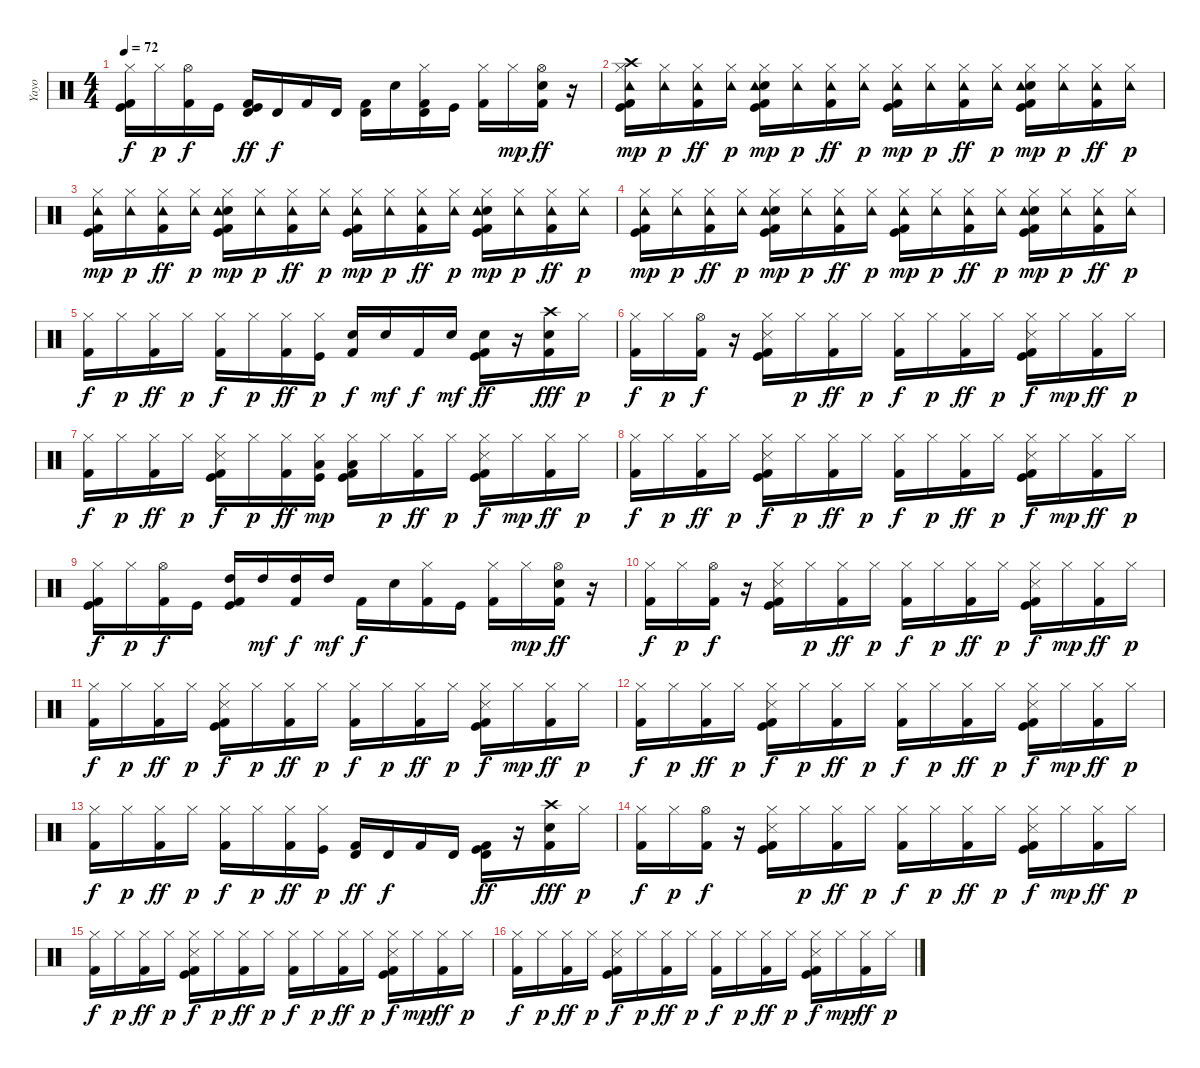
\track ("Yayo" "Yayo") {instrument percussion}
\staff {score}
\articulation defaults
\ts (4 4)
\tempo 72
\clef neutral
\ks c
("Kick (hit)" "Hi-Hat (closed)" "Kick (hit) 2").16{dy f} "Hi-Hat (closed)".16{dy p} ("Hi-Hat (open)" "Kick (hit) 2").16{dy f} "Kick (hit)".16 ("Kick (hit)" "Timbale high (hit)" "Kick (hit) 2").16{dy ff} "Timbale high (hit)".16{dy f} "Kick (hit) 2".16 "Timbale high (hit)".16 ("Timbale high (hit)" "Kick (hit) 2").16 "Snare (hit) 2".16 ("Hi-Hat (closed)" "Timbale high (hit)" "Kick (hit) 2").16 "Kick (hit)".16 ("Hi-Hat (closed)" "Kick (hit) 2").16 "Hi-Hat (closed)".16{dy mp} ("Snare (hit) 2" "Hi-Hat (open)" "Kick (hit) 2").16{dy ff} r.16 |
("Kick (hit)" "Hi-Hat (closed)" "Crash high (hit)" "Tambourine (hit)" "Kick (hit) 2").16{dy mp} ("Hi-Hat (closed)" "Tambourine (hit)").16{dy p} ("Hi-Hat (closed)" "Tambourine (hit)" "Kick (hit) 2").16{dy ff} ("Hi-Hat (closed)" "Tambourine (hit)").16{dy p} ("Kick (hit)" "Snare (hit) 2" "Hi-Hat (closed)" "Tambourine (hit)" "Kick (hit) 2").16{dy mp} ("Hi-Hat (closed)" "Tambourine (hit)").16{dy p} ("Hi-Hat (closed)" "Tambourine (hit)" "Kick (hit) 2").16{dy ff} ("Hi-Hat (closed)" "Tambourine (hit)").16{dy p} ("Kick (hit)" "Hi-Hat (closed)" "Tambourine (hit)" "Kick (hit) 2").16{dy mp} ("Hi-Hat (closed)" "Tambourine (hit)").16{dy p} ("Hi-Hat (closed)" "Tambourine (hit)" "Kick (hit) 2").16{dy ff} ("Hi-Hat (closed)" "Tambourine (hit)").16{dy p} ("Kick (hit)" "Snare (hit) 2" "Hi-Hat (closed)" "Tambourine (hit)" "Kick (hit) 2").16{dy mp} ("Hi-Hat (closed)" "Tambourine (hit)").16{dy p} ("Hi-Hat (closed)" "Tambourine (hit)" "Kick (hit) 2").16{dy ff} ("Hi-Hat (closed)" "Tambourine (hit)").16{dy p} |
("Kick (hit)" "Hi-Hat (closed)" "Tambourine (hit)" "Kick (hit) 2").16{dy mp} ("Hi-Hat (closed)" "Tambourine (hit)").16{dy p} ("Hi-Hat (closed)" "Tambourine (hit)" "Kick (hit) 2").16{dy ff} ("Hi-Hat (closed)" "Tambourine (hit)").16{dy p} ("Kick (hit)" "Snare (hit) 2" "Hi-Hat (closed)" "Tambourine (hit)" "Kick (hit) 2").16{dy mp} ("Hi-Hat (closed)" "Tambourine (hit)").16{dy p} ("Hi-Hat (closed)" "Tambourine (hit)" "Kick (hit) 2").16{dy ff} ("Hi-Hat (closed)" "Tambourine (hit)").16{dy p} ("Kick (hit)" "Hi-Hat (closed)" "Tambourine (hit)" "Kick (hit) 2").16{dy mp} ("Hi-Hat (closed)" "Tambourine (hit)").16{dy p} ("Hi-Hat (closed)" "Tambourine (hit)" "Kick (hit) 2").16{dy ff} ("Hi-Hat (closed)" "Tambourine (hit)").16{dy p} ("Kick (hit)" "Snare (hit) 2" "Hi-Hat (closed)" "Tambourine (hit)" "Kick (hit) 2").16{dy mp} ("Hi-Hat (closed)" "Tambourine (hit)").16{dy p} ("Hi-Hat (closed)" "Tambourine (hit)" "Kick (hit) 2").16{dy ff} ("Hi-Hat (closed)" "Tambourine (hit)").16{dy p} |
("Kick (hit)" "Hi-Hat (closed)" "Tambourine (hit)" "Kick (hit) 2").16{dy mp} ("Hi-Hat (closed)" "Tambourine (hit)").16{dy p} ("Hi-Hat (closed)" "Tambourine (hit)" "Kick (hit) 2").16{dy ff} ("Hi-Hat (closed)" "Tambourine (hit)").16{dy p} ("Kick (hit)" "Snare (hit) 2" "Hi-Hat (closed)" "Tambourine (hit)" "Kick (hit) 2").16{dy mp} ("Hi-Hat (closed)" "Tambourine (hit)").16{dy p} ("Hi-Hat (closed)" "Tambourine (hit)" "Kick (hit) 2").16{dy ff} ("Hi-Hat (closed)" "Tambourine (hit)").16{dy p} ("Kick (hit)" "Hi-Hat (closed)" "Tambourine (hit)" "Kick (hit) 2").16{dy mp} ("Hi-Hat (closed)" "Tambourine (hit)").16{dy p} ("Hi-Hat (closed)" "Tambourine (hit)" "Kick (hit) 2").16{dy ff} ("Hi-Hat (closed)" "Tambourine (hit)").16{dy p} ("Kick (hit)" "Snare (hit) 2" "Hi-Hat (closed)" "Tambourine (hit)" "Kick (hit) 2").16{dy mp} ("Hi-Hat (closed)" "Tambourine (hit)").16{dy p} ("Hi-Hat (closed)" "Tambourine (hit)" "Kick (hit) 2").16{dy ff} ("Hi-Hat (closed)" "Tambourine (hit)").16{dy p} |
("Hi-Hat (closed)" "Kick (hit) 2").16{dy f} "Hi-Hat (closed)".16{dy p} ("Hi-Hat (closed)" "Kick (hit) 2").16{dy ff} "Hi-Hat (closed)".16{dy p} ("Hi-Hat (closed)" "Kick (hit) 2").16{dy f} "Hi-Hat (closed)".16{dy p} ("Hi-Hat (closed)" "Kick (hit) 2").16{dy ff} ("Kick (hit)" "Hi-Hat (closed)").16{dy p} ("Snare (hit) 2" "Kick (hit) 2").16{dy f} "Snare (hit) 2".16{dy mf} "Kick (hit) 2".16{dy f} "Snare (hit) 2".16{dy mf} ("Kick (hit)" "Snare (hit) 2" "Kick (hit) 2").16{dy ff} r.16 ("Snare (hit) 2" "Crash high (hit)" "Kick (hit) 2").16{dy fff} "Hi-Hat (closed)".16{dy p} |
("Hi-Hat (closed)" "Kick (hit) 2").16{dy f} "Hi-Hat (closed)".16{dy p} ("Hi-Hat (open)" "Kick (hit) 2").16{dy f} r.16 ("Kick (hit)" "Hi-Hat (closed)" "Snare (side stick) 3" "Kick (hit) 2").16 "Hi-Hat (closed)".16{dy p} ("Hi-Hat (closed)" "Kick (hit) 2").16{dy ff} "Hi-Hat (closed)".16{dy p} ("Hi-Hat (closed)" "Kick (hit) 2").16{dy f} "Hi-Hat (closed)".16{dy p} ("Hi-Hat (closed)" "Kick (hit) 2").16{dy ff} "Hi-Hat (closed)".16{dy p} ("Kick (hit)" "Hi-Hat (closed)" "Snare (side stick) 3" "Kick (hit) 2").16{dy f} "Hi-Hat (closed)".16{dy mp} ("Hi-Hat (closed)" "Kick (hit) 2").16{dy ff} "Hi-Hat (closed)".16{dy p} |
("Hi-Hat (closed)" "Kick (hit) 2").16{dy f} "Hi-Hat (closed)".16{dy p} ("Hi-Hat (closed)" "Kick (hit) 2").16{dy ff} "Hi-Hat (closed)".16{dy p} ("Kick (hit)" "Hi-Hat (closed)" "Snare (side stick) 3" "Kick (hit) 2").16{dy f} "Hi-Hat (closed)".16{dy p} ("Hi-Hat (closed)" "Kick (hit) 2").16{dy ff} ("Kick (hit)" "Hi-Hat (closed)" "Low Tom (hit)").16{dy mp} ("Kick (hit)" "Hi-Hat (closed)" "Low Tom (hit)" "Kick (hit) 2").16 "Hi-Hat (closed)".16{dy p} ("Hi-Hat (closed)" "Kick (hit) 2").16{dy ff} "Hi-Hat (closed)".16{dy p} ("Kick (hit)" "Hi-Hat (closed)" "Snare (side stick) 3" "Kick (hit) 2").16{dy f} "Hi-Hat (closed)".16{dy mp} ("Hi-Hat (closed)" "Kick (hit) 2").16{dy ff} "Hi-Hat (closed)".16{dy p} |
("Hi-Hat (closed)" "Kick (hit) 2").16{dy f} "Hi-Hat (closed)".16{dy p} ("Hi-Hat (closed)" "Kick (hit) 2").16{dy ff} "Hi-Hat (closed)".16{dy p} ("Kick (hit)" "Hi-Hat (closed)" "Snare (side stick) 3" "Kick (hit) 2").16{dy f} "Hi-Hat (closed)".16{dy p} ("Hi-Hat (closed)" "Kick (hit) 2").16{dy ff} "Hi-Hat (closed)".16{dy p} ("Hi-Hat (closed)" "Kick (hit) 2").16{dy f} "Hi-Hat (closed)".16{dy p} ("Hi-Hat (closed)" "Kick (hit) 2").16{dy ff} "Hi-Hat (closed)".16{dy p} ("Kick (hit)" "Hi-Hat (closed)" "Snare (side stick) 3" "Kick (hit) 2").16{dy f} "Hi-Hat (closed)".16{dy mp} ("Hi-Hat (closed)" "Kick (hit) 2").16{dy ff} "Hi-Hat (closed)".16{dy p} |
("Kick (hit)" "Hi-Hat (closed)" "Kick (hit) 2").16{dy f} "Hi-Hat (closed)".16{dy p} ("Hi-Hat (open)" "Kick (hit) 2").16{dy f} "Kick (hit)".16 ("Kick (hit)" "High Tom (hit)" "Kick (hit) 2").16 "High Tom (hit)".16{dy mf} ("High Tom (hit)" "Kick (hit) 2").16{dy f} "High Tom (hit)".16{dy mf} "Kick (hit) 2".16{dy f} "Snare (hit) 2".16 ("Hi-Hat (closed)" "Kick (hit) 2").16 "Kick (hit)".16 ("Hi-Hat (closed)" "Kick (hit) 2").16 "Hi-Hat (closed)".16{dy mp} ("Snare (hit) 2" "Hi-Hat (open)" "Kick (hit) 2").16{dy ff} r.16 |
("Hi-Hat (closed)" "Kick (hit) 2").16{dy f} "Hi-Hat (closed)".16{dy p} ("Hi-Hat (open)" "Kick (hit) 2").16{dy f} r.16 ("Kick (hit)" "Hi-Hat (closed)" "Snare (side stick) 3" "Kick (hit) 2").16 "Hi-Hat (closed)".16{dy p} ("Hi-Hat (closed)" "Kick (hit) 2").16{dy ff} "Hi-Hat (closed)".16{dy p} ("Hi-Hat (closed)" "Kick (hit) 2").16{dy f} "Hi-Hat (closed)".16{dy p} ("Hi-Hat (closed)" "Kick (hit) 2").16{dy ff} "Hi-Hat (closed)".16{dy p} ("Kick (hit)" "Hi-Hat (closed)" "Snare (side stick) 3" "Kick (hit) 2").16{dy f} "Hi-Hat (closed)".16{dy mp} ("Hi-Hat (closed)" "Kick (hit) 2").16{dy ff} "Hi-Hat (closed)".16{dy p} |
("Hi-Hat (closed)" "Kick (hit) 2").16{dy f} "Hi-Hat (closed)".16{dy p} ("Hi-Hat (closed)" "Kick (hit) 2").16{dy ff} "Hi-Hat (closed)".16{dy p} ("Kick (hit)" "Hi-Hat (closed)" "Snare (side stick) 3" "Kick (hit) 2").16{dy f} "Hi-Hat (closed)".16{dy p} ("Hi-Hat (closed)" "Kick (hit) 2").16{dy ff} "Hi-Hat (closed)".16{dy p} ("Hi-Hat (closed)" "Kick (hit) 2").16{dy f} "Hi-Hat (closed)".16{dy p} ("Hi-Hat (closed)" "Kick (hit) 2").16{dy ff} "Hi-Hat (closed)".16{dy p} ("Kick (hit)" "Hi-Hat (closed)" "Snare (side stick) 3" "Kick (hit) 2").16{dy f} "Hi-Hat (closed)".16{dy mp} ("Hi-Hat (closed)" "Kick (hit) 2").16{dy ff} "Hi-Hat (closed)".16{dy p} |
("Hi-Hat (closed)" "Kick (hit) 2").16{dy f} "Hi-Hat (closed)".16{dy p} ("Hi-Hat (closed)" "Kick (hit) 2").16{dy ff} "Hi-Hat (closed)".16{dy p} ("Kick (hit)" "Hi-Hat (closed)" "Snare (side stick) 3" "Kick (hit) 2").16{dy f} "Hi-Hat (closed)".16{dy p} ("Hi-Hat (closed)" "Kick (hit) 2").16{dy ff} "Hi-Hat (closed)".16{dy p} ("Hi-Hat (closed)" "Kick (hit) 2").16{dy f} "Hi-Hat (closed)".16{dy p} ("Hi-Hat (closed)" "Kick (hit) 2").16{dy ff} "Hi-Hat (closed)".16{dy p} ("Kick (hit)" "Hi-Hat (closed)" "Snare (side stick) 3" "Kick (hit) 2").16{dy f} "Hi-Hat (closed)".16{dy mp} ("Hi-Hat (closed)" "Kick (hit) 2").16{dy ff} "Hi-Hat (closed)".16{dy p} |
("Hi-Hat (closed)" "Kick (hit) 2").16{dy f} "Hi-Hat (closed)".16{dy p} ("Hi-Hat (closed)" "Kick (hit) 2").16{dy ff} "Hi-Hat (closed)".16{dy p} ("Hi-Hat (closed)" "Kick (hit) 2").16{dy f} "Hi-Hat (closed)".16{dy p} ("Hi-Hat (closed)" "Kick (hit) 2").16{dy ff} ("Kick (hit)" "Hi-Hat (closed)").16{dy p} ("Timbale high (hit)" "Kick (hit) 2").16{dy ff} "Timbale high (hit)".16{dy f} "Kick (hit) 2".16 "Timbale high (hit)".16 ("Kick (hit)" "Timbale high (hit)" "Kick (hit) 2").16{dy ff} r.16 ("Snare (hit) 2" "Crash high (hit)" "Kick (hit) 2").16{dy fff} "Hi-Hat (closed)".16{dy p} |
("Hi-Hat (closed)" "Kick (hit) 2").16{dy f} "Hi-Hat (closed)".16{dy p} ("Hi-Hat (open)" "Kick (hit) 2").16{dy f} r.16 ("Kick (hit)" "Hi-Hat (closed)" "Snare (side stick) 3" "Kick (hit) 2").16 "Hi-Hat (closed)".16{dy p} ("Hi-Hat (closed)" "Kick (hit) 2").16{dy ff} "Hi-Hat (closed)".16{dy p} ("Hi-Hat (closed)" "Kick (hit) 2").16{dy f} "Hi-Hat (closed)".16{dy p} ("Hi-Hat (closed)" "Kick (hit) 2").16{dy ff} "Hi-Hat (closed)".16{dy p} ("Kick (hit)" "Hi-Hat (closed)" "Snare (side stick) 3" "Kick (hit) 2").16{dy f} "Hi-Hat (closed)".16{dy mp} ("Hi-Hat (closed)" "Kick (hit) 2").16{dy ff} "Hi-Hat (closed)".16{dy p} |
("Hi-Hat (closed)" "Kick (hit) 2").16{dy f} "Hi-Hat (closed)".16{dy p} ("Hi-Hat (closed)" "Kick (hit) 2").16{dy ff} "Hi-Hat (closed)".16{dy p} ("Kick (hit)" "Hi-Hat (closed)" "Snare (side stick) 3" "Kick (hit) 2").16{dy f} "Hi-Hat (closed)".16{dy p} ("Hi-Hat (closed)" "Kick (hit) 2").16{dy ff} "Hi-Hat (closed)".16{dy p} ("Hi-Hat (closed)" "Kick (hit) 2").16{dy f} "Hi-Hat (closed)".16{dy p} ("Hi-Hat (closed)" "Kick (hit) 2").16{dy ff} "Hi-Hat (closed)".16{dy p} ("Kick (hit)" "Hi-Hat (closed)" "Snare (side stick) 3" "Kick (hit) 2").16{dy f} "Hi-Hat (closed)".16{dy mp} ("Hi-Hat (closed)" "Kick (hit) 2").16{dy ff} "Hi-Hat (closed)".16{dy p} |
("Hi-Hat (closed)" "Kick (hit) 2").16{dy f} "Hi-Hat (closed)".16{dy p} ("Hi-Hat (closed)" "Kick (hit) 2").16{dy ff} "Hi-Hat (closed)".16{dy p} ("Kick (hit)" "Hi-Hat (closed)" "Snare (side stick) 3" "Kick (hit) 2").16{dy f} "Hi-Hat (closed)".16{dy p} ("Hi-Hat (closed)" "Kick (hit) 2").16{dy ff} "Hi-Hat (closed)".16{dy p} ("Hi-Hat (closed)" "Kick (hit) 2").16{dy f} "Hi-Hat (closed)".16{dy p} ("Hi-Hat (closed)" "Kick (hit) 2").16{dy ff} "Hi-Hat (closed)".16{dy p} ("Kick (hit)" "Hi-Hat (closed)" "Snare (side stick) 3" "Kick (hit) 2").16{dy f} "Hi-Hat (closed)".16{dy mp} ("Hi-Hat (closed)" "Kick (hit) 2").16{dy ff} "Hi-Hat (closed)".16{dy p}
